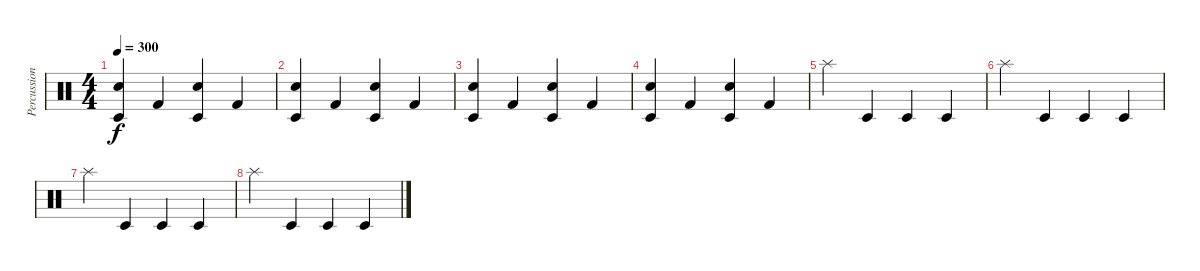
\track ("Percussion" "Percussion") {instrument percussion}
\staff {score}
\articulation defaults
\ts (4 4)
\tempo 300
\clef neutral
\ks c
("Snare (hit) 2" "Timbale low (hit)").4{dy f} "Kick (hit) 2".4 ("Snare (hit) 2" "Timbale low (hit)").4 "Kick (hit) 2".4 |
("Snare (hit) 2" "Timbale low (hit)").4 "Kick (hit) 2".4 ("Snare (hit) 2" "Timbale low (hit)").4 "Kick (hit) 2".4 |
("Snare (hit) 2" "Timbale low (hit)").4 "Kick (hit) 2".4 ("Snare (hit) 2" "Timbale low (hit)").4 "Kick (hit) 2".4 |
("Snare (hit) 2" "Timbale low (hit)").4 "Kick (hit) 2".4 ("Snare (hit) 2" "Timbale low (hit)").4 "Kick (hit) 2".4 |
"Splash (hit)".4 "Timbale low (hit)".4 "Timbale low (hit)".4 "Timbale low (hit)".4 |
"Splash (hit)".4 "Timbale low (hit)".4 "Timbale low (hit)".4 "Timbale low (hit)".4 |
"Splash (hit)".4 "Timbale low (hit)".4 "Timbale low (hit)".4 "Timbale low (hit)".4 |
"Splash (hit)".4 "Timbale low (hit)".4 "Timbale low (hit)".4 "Timbale low (hit)".4
